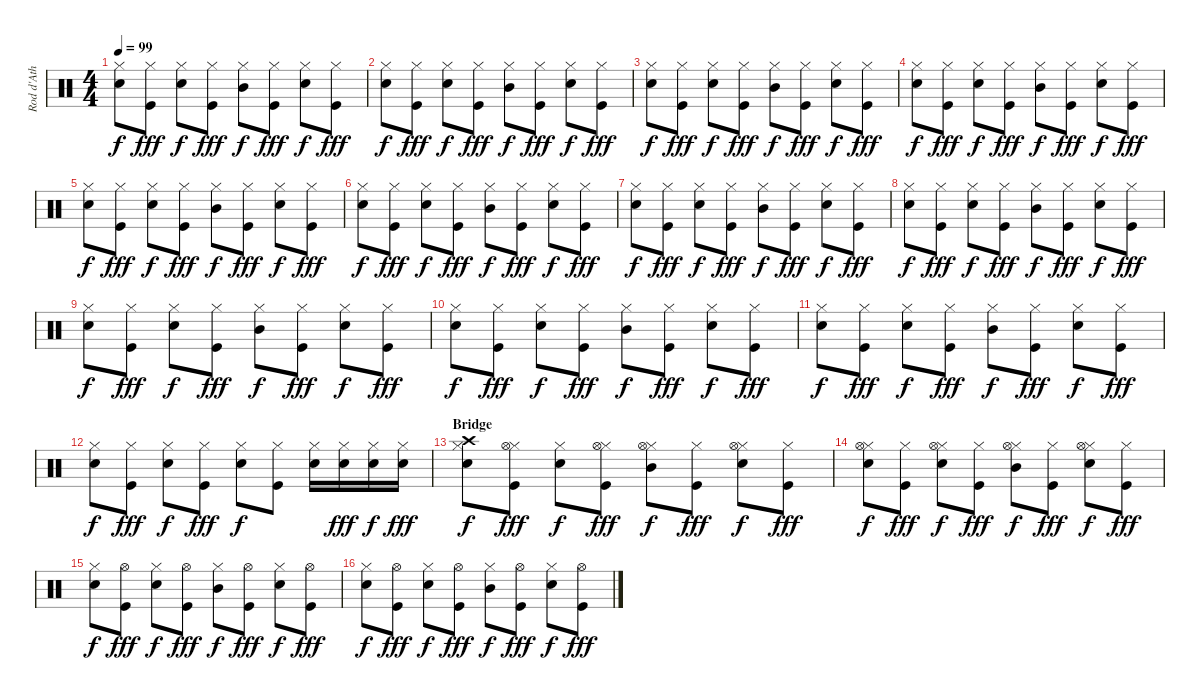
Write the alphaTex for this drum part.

\track ("Rod d'Ath" "Rod d'Ath") {instrument percussion}
\staff {score}
\articulation defaults
\ts (4 4)
\tempo 99
\clef neutral
\ks c
("Hi-Hat (closed)" "Snare (hit) 2").8{dy f} ("Hi-Hat (closed)" "Kick (hit)").8{dy fff} ("Hi-Hat (closed)" "Snare (hit) 2").8{dy f} ("Hi-Hat (closed)" "Kick (hit)").8{dy fff} ("Hi-Hat (closed)" "Mid Tom (hit)").8{dy f} ("Hi-Hat (closed)" "Kick (hit)").8{dy fff} ("Hi-Hat (closed)" "Snare (hit) 2").8{dy f} ("Hi-Hat (closed)" "Kick (hit)").8{dy fff} |
("Hi-Hat (closed)" "Snare (hit) 2").8{dy f} ("Hi-Hat (closed)" "Kick (hit)").8{dy fff} ("Hi-Hat (closed)" "Snare (hit) 2").8{dy f} ("Hi-Hat (closed)" "Kick (hit)").8{dy fff} ("Hi-Hat (closed)" "Mid Tom (hit)").8{dy f} ("Hi-Hat (closed)" "Kick (hit)").8{dy fff} ("Hi-Hat (closed)" "Snare (hit) 2").8{dy f} ("Hi-Hat (closed)" "Kick (hit)").8{dy fff} |
("Hi-Hat (closed)" "Snare (hit) 2").8{dy f} ("Hi-Hat (closed)" "Kick (hit)").8{dy fff} ("Hi-Hat (closed)" "Snare (hit) 2").8{dy f} ("Hi-Hat (closed)" "Kick (hit)").8{dy fff} ("Hi-Hat (closed)" "Mid Tom (hit)").8{dy f} ("Hi-Hat (closed)" "Kick (hit)").8{dy fff} ("Hi-Hat (closed)" "Snare (hit) 2").8{dy f} ("Hi-Hat (closed)" "Kick (hit)").8{dy fff} |
("Hi-Hat (closed)" "Snare (hit) 2").8{dy f} ("Hi-Hat (closed)" "Kick (hit)").8{dy fff} ("Hi-Hat (closed)" "Snare (hit) 2").8{dy f} ("Hi-Hat (closed)" "Kick (hit)").8{dy fff} ("Hi-Hat (closed)" "Mid Tom (hit)").8{dy f} ("Hi-Hat (closed)" "Kick (hit)").8{dy fff} ("Hi-Hat (closed)" "Snare (hit) 2").8{dy f} ("Hi-Hat (closed)" "Kick (hit)").8{dy fff} |
("Hi-Hat (closed)" "Snare (hit) 2").8{dy f} ("Hi-Hat (closed)" "Kick (hit)").8{dy fff} ("Hi-Hat (closed)" "Snare (hit) 2").8{dy f} ("Hi-Hat (closed)" "Kick (hit)").8{dy fff} ("Hi-Hat (closed)" "Mid Tom (hit)").8{dy f} ("Hi-Hat (closed)" "Kick (hit)").8{dy fff} ("Hi-Hat (closed)" "Snare (hit) 2").8{dy f} ("Hi-Hat (closed)" "Kick (hit)").8{dy fff} |
("Hi-Hat (closed)" "Snare (hit) 2").8{dy f} ("Hi-Hat (closed)" "Kick (hit)").8{dy fff} ("Hi-Hat (closed)" "Snare (hit) 2").8{dy f} ("Hi-Hat (closed)" "Kick (hit)").8{dy fff} ("Hi-Hat (closed)" "Mid Tom (hit)").8{dy f} ("Hi-Hat (closed)" "Kick (hit)").8{dy fff} ("Hi-Hat (closed)" "Snare (hit) 2").8{dy f} ("Hi-Hat (closed)" "Kick (hit)").8{dy fff} |
("Hi-Hat (closed)" "Snare (hit) 2").8{dy f} ("Hi-Hat (closed)" "Kick (hit)").8{dy fff} ("Hi-Hat (closed)" "Snare (hit) 2").8{dy f} ("Hi-Hat (closed)" "Kick (hit)").8{dy fff} ("Hi-Hat (closed)" "Mid Tom (hit)").8{dy f} ("Hi-Hat (closed)" "Kick (hit)").8{dy fff} ("Hi-Hat (closed)" "Snare (hit) 2").8{dy f} ("Hi-Hat (closed)" "Kick (hit)").8{dy fff} |
("Hi-Hat (closed)" "Snare (hit) 2").8{dy f} ("Hi-Hat (closed)" "Kick (hit)").8{dy fff} ("Hi-Hat (closed)" "Snare (hit) 2").8{dy f} ("Hi-Hat (closed)" "Kick (hit)").8{dy fff} ("Hi-Hat (closed)" "Mid Tom (hit)").8{dy f} ("Hi-Hat (closed)" "Kick (hit)").8{dy fff} ("Hi-Hat (closed)" "Snare (hit) 2").8{dy f} ("Hi-Hat (closed)" "Kick (hit)").8{dy fff} |
("Hi-Hat (closed)" "Snare (hit) 2").8{dy f} ("Hi-Hat (closed)" "Kick (hit)").8{dy fff} ("Hi-Hat (closed)" "Snare (hit) 2").8{dy f} ("Hi-Hat (closed)" "Kick (hit)").8{dy fff} ("Hi-Hat (closed)" "Mid Tom (hit)").8{dy f} ("Hi-Hat (closed)" "Kick (hit)").8{dy fff} ("Hi-Hat (closed)" "Snare (hit) 2").8{dy f} ("Hi-Hat (closed)" "Kick (hit)").8{dy fff} |
("Hi-Hat (closed)" "Snare (hit) 2").8{dy f} ("Hi-Hat (closed)" "Kick (hit)").8{dy fff} ("Hi-Hat (closed)" "Snare (hit) 2").8{dy f} ("Hi-Hat (closed)" "Kick (hit)").8{dy fff} ("Hi-Hat (closed)" "Mid Tom (hit)").8{dy f} ("Hi-Hat (closed)" "Kick (hit)").8{dy fff} ("Hi-Hat (closed)" "Snare (hit) 2").8{dy f} ("Hi-Hat (closed)" "Kick (hit)").8{dy fff} |
("Hi-Hat (closed)" "Snare (hit) 2").8{dy f} ("Hi-Hat (closed)" "Kick (hit)").8{dy fff} ("Hi-Hat (closed)" "Snare (hit) 2").8{dy f} ("Hi-Hat (closed)" "Kick (hit)").8{dy fff} ("Hi-Hat (closed)" "Mid Tom (hit)").8{dy f} ("Hi-Hat (closed)" "Kick (hit)").8{dy fff} ("Hi-Hat (closed)" "Snare (hit) 2").8{dy f} ("Hi-Hat (closed)" "Kick (hit)").8{dy fff} |
("Hi-Hat (closed)" "Snare (hit) 2").8{dy f} ("Hi-Hat (closed)" "Kick (hit)").8{dy fff} ("Hi-Hat (closed)" "Snare (hit) 2").8{dy f} ("Hi-Hat (closed)" "Kick (hit)").8{dy fff} ("Hi-Hat (closed)" "Snare (hit) 2").8{dy f} ("Hi-Hat (closed)" "Kick (hit)").8 ("Hi-Hat (closed)" "Snare (hit) 2").16 ("Hi-Hat (closed)" "Snare (hit) 2").16{dy fff} ("Hi-Hat (closed)" "Snare (hit) 2").16{dy f} ("Hi-Hat (closed)" "Snare (hit) 2").16{dy fff} |
\section ("" "Bridge")
("Hi-Hat (closed)" "Snare (hit) 2" "Crash high (hit)").8{dy f} ("Hi-Hat (closed)" "Kick (hit)" "Hi-Hat (open)").8{dy fff} ("Hi-Hat (closed)" "Snare (hit) 2").8{dy f} ("Hi-Hat (closed)" "Kick (hit)" "Hi-Hat (open)").8{dy fff} ("Hi-Hat (closed)" "Mid Tom (hit)" "Hi-Hat (open)").8{dy f} ("Hi-Hat (closed)" "Kick (hit)").8{dy fff} ("Hi-Hat (closed)" "Snare (hit) 2" "Hi-Hat (open)").8{dy f} ("Hi-Hat (closed)" "Kick (hit)").8{dy fff} |
("Hi-Hat (closed)" "Snare (hit) 2" "Hi-Hat (open)").8{dy f} ("Hi-Hat (closed)" "Kick (hit)").8{dy fff} ("Hi-Hat (closed)" "Snare (hit) 2" "Hi-Hat (open)").8{dy f} ("Hi-Hat (closed)" "Kick (hit)").8{dy fff} ("Hi-Hat (closed)" "Mid Tom (hit)" "Hi-Hat (open)").8{dy f} ("Hi-Hat (closed)" "Kick (hit)").8{dy fff} ("Hi-Hat (closed)" "Snare (hit) 2" "Hi-Hat (open)").8{dy f} ("Hi-Hat (closed)" "Kick (hit)").8{dy fff} |
("Hi-Hat (closed)" "Snare (hit) 2").8{dy f} ("Hi-Hat (open)" "Kick (hit)").8{dy fff} ("Hi-Hat (closed)" "Snare (hit) 2").8{dy f} ("Hi-Hat (open)" "Kick (hit)").8{dy fff} ("Hi-Hat (closed)" "Mid Tom (hit)").8{dy f} ("Hi-Hat (open)" "Kick (hit)").8{dy fff} ("Hi-Hat (closed)" "Snare (hit) 2").8{dy f} ("Hi-Hat (open)" "Kick (hit)").8{dy fff} |
("Hi-Hat (closed)" "Snare (hit) 2").8{dy f} ("Hi-Hat (open)" "Kick (hit)").8{dy fff} ("Hi-Hat (closed)" "Snare (hit) 2").8{dy f} ("Hi-Hat (open)" "Kick (hit)").8{dy fff} ("Hi-Hat (closed)" "Mid Tom (hit)").8{dy f} ("Hi-Hat (open)" "Kick (hit)").8{dy fff} ("Hi-Hat (closed)" "Snare (hit) 2").8{dy f} ("Hi-Hat (open)" "Kick (hit)").8{dy fff}
